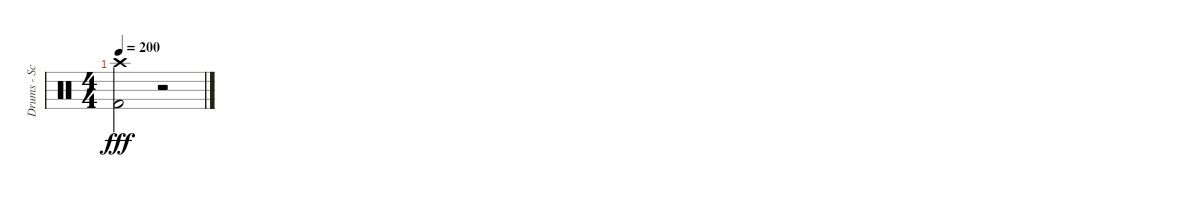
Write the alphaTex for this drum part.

\track ("Drums - Scott" "Drums - Sc") {instrument percussion}
\staff {score}
\articulation defaults
\ts (4 4)
\tempo 200
\clef neutral
\ks c
("Kick (hit) 2" "Crash high (hit)").2{dy fff} r.2
